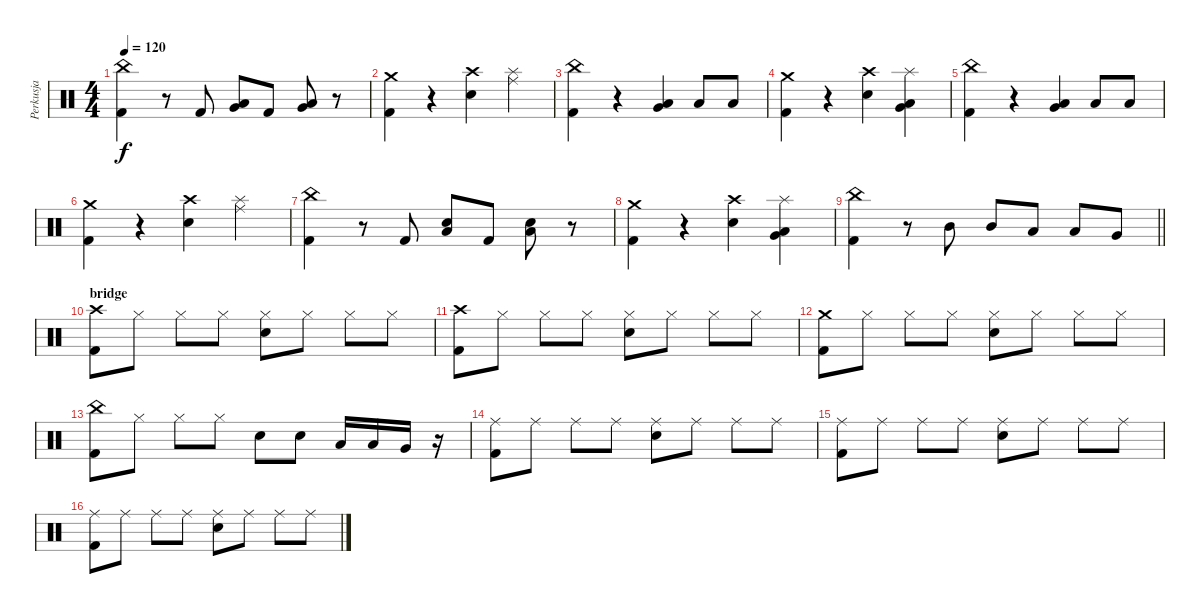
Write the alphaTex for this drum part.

\track ("Perkusja" "Perkusja") {instrument percussion}
\staff {score}
\articulation defaults
\ts (4 4)
\tempo 120
\clef neutral
\ks c
("China (hit)" "Kick (hit) 2").4{dy f} r.8 "Kick (hit) 2".8 ("Very Low Tom (hit)" "Low Floor Tom (hit)").8 "Kick (hit) 2".8 ("Very Low Tom (hit)" "Low Floor Tom (hit)").8 r.8 |
("Crash medium (hit)" "Kick (hit) 2").4 r.4 ("Crash high (hit)" "Snare (hit) 2").4 ("Splash (hit)" "Ride (middle)").4 |
("China (hit)" "Kick (hit) 2").4 r.4 ("Very Low Tom (hit)" "Low Floor Tom (hit)").4 "Low Floor Tom (hit)".8 "Low Floor Tom (hit)".8 |
("Crash medium (hit)" "Kick (hit) 2").4 r.4 ("Crash high (hit)" "Snare (hit) 2").4 ("Splash (hit)" "Very Low Tom (hit)" "Low Floor Tom (hit)").4 |
("China (hit)" "Kick (hit) 2").4 r.4 ("Very Low Tom (hit)" "Low Floor Tom (hit)").4 "Low Floor Tom (hit)".8 "Low Floor Tom (hit)".8 |
("Crash medium (hit)" "Kick (hit) 2").4 r.4 ("Crash high (hit)" "Snare (hit) 2").4 ("Splash (hit)" "Ride (middle)").4 |
("China (hit)" "Kick (hit) 2").4 r.8 "Kick (hit) 2".8 ("Snare (hit) 2" "Low Floor Tom (hit)").8 "Kick (hit) 2".8 ("Snare (hit) 2" "Low Floor Tom (hit)").8 r.8 |
("Crash medium (hit)" "Kick (hit) 2").4 r.4 ("Crash high (hit)" "Snare (hit) 2").4 ("Splash (hit)" "Very Low Tom (hit)" "Low Floor Tom (hit)").4 |
\barLineRight lightlight
("China (hit)" "Kick (hit) 2").4 r.8 "Mid Tom (hit)".8 "Mid Tom (hit)".8 "Low Tom (hit)".8 "Low Tom (hit)".8 "Very Low Tom (hit)".8 |
\section ("" "bridge")
("Crash high (hit)" "Kick (hit) 2").8 "Hi-Hat (closed)".8 "Hi-Hat (closed)".8 "Hi-Hat (closed)".8 ("Hi-Hat (closed)" "Snare (hit) 2").8 "Hi-Hat (closed)".8 "Hi-Hat (closed)".8 "Hi-Hat (closed)".8 |
("Crash high (hit)" "Kick (hit) 2").8 "Hi-Hat (closed)".8 "Hi-Hat (closed)".8 "Hi-Hat (closed)".8 ("Hi-Hat (closed)" "Snare (hit) 2").8 "Hi-Hat (closed)".8 "Hi-Hat (closed)".8 "Hi-Hat (closed)".8 |
("Crash medium (hit)" "Kick (hit) 2").8 "Hi-Hat (closed)".8 "Hi-Hat (closed)".8 "Hi-Hat (closed)".8 ("Hi-Hat (closed)" "Snare (hit) 2").8 "Hi-Hat (closed)".8 "Hi-Hat (closed)".8 "Hi-Hat (closed)".8 |
("China (hit)" "Kick (hit) 2").8 "Hi-Hat (closed)".8 "Hi-Hat (closed)".8 "Hi-Hat (closed)".8 "Snare (hit) 2".8 "Snare (hit) 2".8 "Low Tom (hit)".16 "Low Tom (hit)".16 "Very Low Tom (hit)".16 r.16 |
("Ride (middle)" "Kick (hit) 2").8 "Ride (middle)".8 "Ride (middle)".8 "Ride (middle)".8 ("Ride (middle)" "Snare (hit) 2").8 "Ride (middle)".8 "Ride (middle)".8 "Ride (middle)".8 |
("Ride (middle)" "Kick (hit) 2").8 "Ride (middle)".8 "Ride (middle)".8 "Ride (middle)".8 ("Ride (middle)" "Snare (hit) 2").8 "Ride (middle)".8 "Ride (middle)".8 "Ride (middle)".8 |
("Ride (middle)" "Kick (hit) 2").8 "Ride (middle)".8 "Ride (middle)".8 "Ride (middle)".8 ("Ride (middle)" "Snare (hit) 2").8 "Ride (middle)".8 "Ride (middle)".8 "Ride (middle)".8
